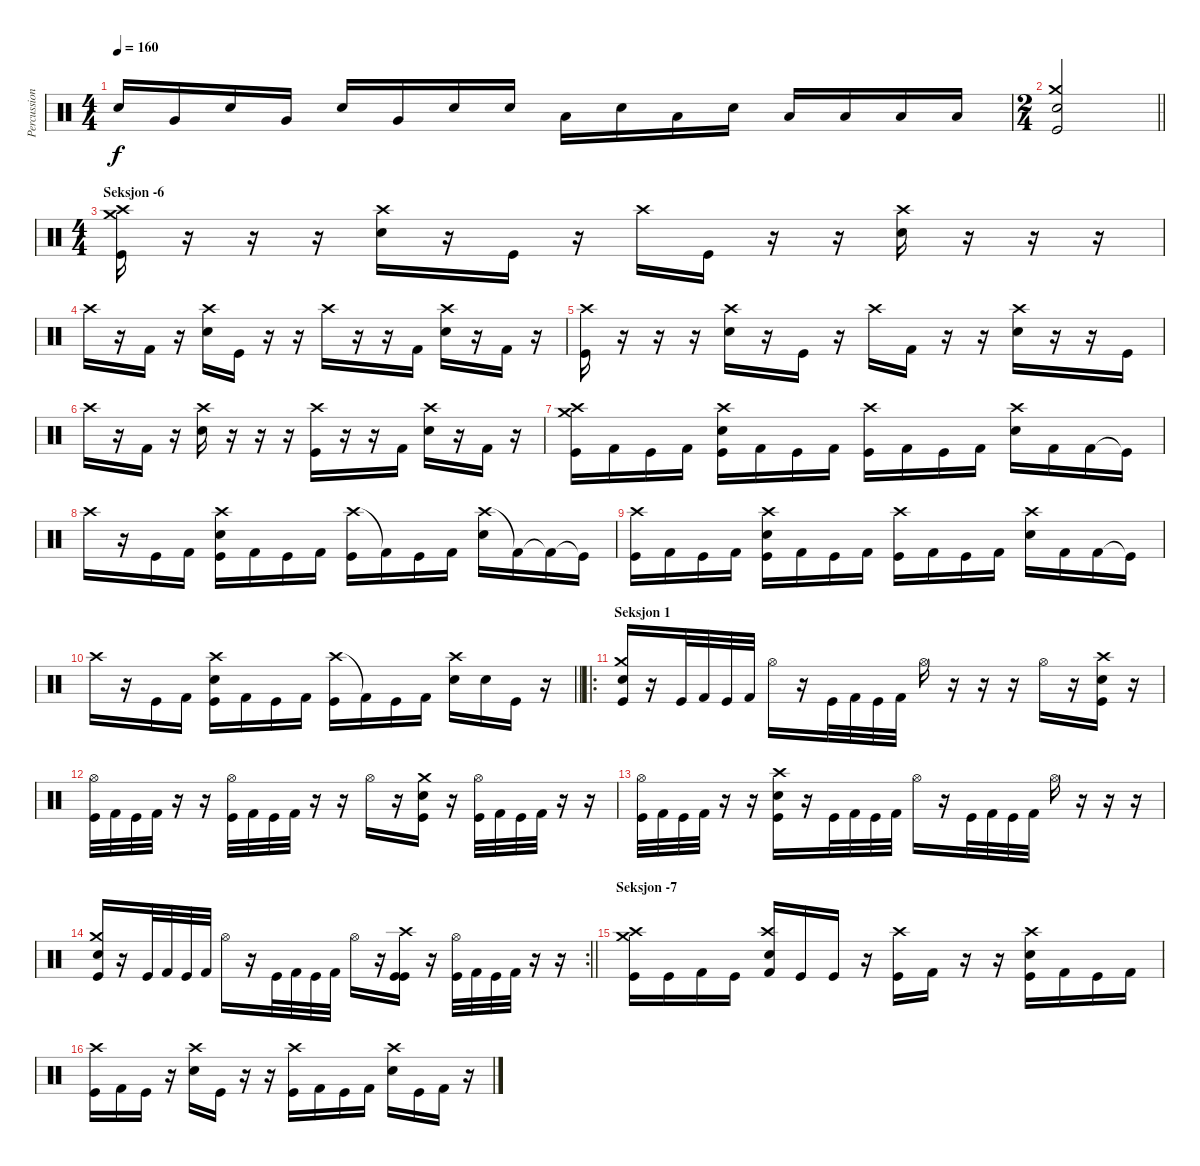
\track ("Percussion" "Percussion") {instrument percussion}
\staff {score}
\articulation defaults
\ts (4 4)
\tempo 160
\clef neutral
\ks c "Snare (hit) 2".16{dy f} "Very Low Tom (hit)".16 "Snare (hit) 2".16 "Very Low Tom (hit)".16 "Snare (hit) 2".16 "Very Low Tom (hit)".16 "Snare (hit) 2".16 "Snare (hit) 2".16 "Low Floor Tom (hit)".16 "Snare (hit) 2".16 "Low Floor Tom (hit)".16 "Snare (hit) 2".16 "Low Floor Tom (hit)".16 "Low Floor Tom (hit)".16 "Low Floor Tom (hit)".16 "Low Floor Tom (hit)".16
|
\ts (2 4)
\barLineRight lightlight
("Crash medium (hit)" "Snare (hit) 2" "Kick (hit)").2 |
\ts (4 4)
\section ("" "Seksjon -6")
("Crash medium (hit)" "Crash high (hit)" "Kick (hit)").16 r.16 r.16 r.16 ("Crash high (hit)" "Snare (hit) 2").16 r.16 "Kick (hit)".16 r.16 "Crash high (hit)".16 "Kick (hit)".16 r.16 r.16 ("Crash high (hit)" "Snare (hit) 2").16 r.16 r.16 r.16 |
"Crash high (hit)".16 r.16 "Kick (hit) 2".16 r.16 ("Crash high (hit)" "Snare (hit) 2").16 "Kick (hit)".16 r.16 r.16 "Crash high (hit)".16 r.16 r.16 "Kick (hit) 2".16 ("Crash high (hit)" "Snare (hit) 2").16 r.16 "Kick (hit) 2".16 r.16 |
("Crash high (hit)" "Kick (hit)").16 r.16 r.16 r.16 ("Crash high (hit)" "Snare (hit) 2").16 r.16 "Kick (hit)".16 r.16 "Crash high (hit)".16 "Kick (hit) 2".16 r.16 r.16 ("Crash high (hit)" "Snare (hit) 2").16 r.16 r.16 "Kick (hit)".16 |
"Crash high (hit)".16 r.16 "Kick (hit) 2".16 r.16 ("Crash high (hit)" "Snare (hit) 2").16 r.16 r.16 r.16 ("Crash high (hit)" "Kick (hit)").16 r.16 r.16 "Kick (hit) 2".16 ("Crash high (hit)" "Snare (hit) 2").16 r.16 "Kick (hit) 2".16 r.16 |
("Crash medium (hit)" "Crash high (hit)" "Kick (hit)").16 "Kick (hit) 2".16 "Kick (hit)".16 "Kick (hit) 2".16 ("Crash high (hit)" "Snare (hit) 2" "Kick (hit)").16 "Kick (hit) 2".16 "Kick (hit)".16 "Kick (hit) 2".16 ("Crash high (hit)" "Kick (hit)").16 "Kick (hit) 2".16 "Kick (hit)".16 "Kick (hit) 2".16 ("Crash high (hit)" "Snare (hit) 2").16 "Kick (hit) 2".16 "Kick (hit) 2".16 "Kick (hit)"{t}.16 |
"Crash high (hit)".16 r.16 "Kick (hit)".16 "Kick (hit) 2".16 ("Crash high (hit)" "Snare (hit) 2" "Kick (hit)").16 "Kick (hit) 2".16 "Kick (hit)".16 "Kick (hit) 2".16 ("Crash high (hit)" "Kick (hit)").16 "Kick (hit) 2"{t}.16 "Kick (hit)".16 "Kick (hit) 2".16 ("Crash high (hit)" "Snare (hit) 2").16 "Kick (hit) 2"{t}.16 "Kick (hit) 2"{t}.16 "Kick (hit)"{t}.16 |
("Crash high (hit)" "Kick (hit)").16 "Kick (hit) 2".16 "Kick (hit)".16 "Kick (hit) 2".16 ("Crash high (hit)" "Snare (hit) 2" "Kick (hit)").16 "Kick (hit) 2".16 "Kick (hit)".16 "Kick (hit) 2".16 ("Crash high (hit)" "Kick (hit)").16 "Kick (hit) 2".16 "Kick (hit)".16 "Kick (hit) 2".16 ("Crash high (hit)" "Snare (hit) 2").16 "Kick (hit) 2".16 "Kick (hit) 2".16 "Kick (hit)"{t}.16 |
\barLineRight lightlight "Crash high (hit)".16
r.16 "Kick (hit)".16 "Kick (hit) 2".16 ("Crash high (hit)" "Snare (hit) 2" "Kick (hit)").16 "Kick (hit) 2".16 "Kick (hit)".16 "Kick (hit) 2".16 ("Crash high (hit)" "Kick (hit)").16 "Kick (hit) 2"{t}.16 "Kick (hit)".16 "Kick (hit) 2".16 ("Crash high (hit)" "Snare (hit) 2").16 "Snare (hit) 2".16 "Kick (hit)".16 r.16 |
\ro
\section ("" "Seksjon 1")
("Crash medium (hit)" "Snare (hit) 2" "Kick (hit)").16 r.16 "Kick (hit)".32 "Kick (hit) 2".32 "Kick (hit)".32 "Kick (hit) 2".32 "Hi-Hat (open)".16 r.16 "Kick (hit)".32 "Kick (hit) 2".32 "Kick (hit)".32 "Kick (hit) 2".32 "Hi-Hat (open)".16 r.16 r.16 r.16 "Hi-Hat (open)".16 r.16 ("Crash high (hit)" "Snare (hit) 2" "Kick (hit)").16 r.16 |
("Hi-Hat (open)" "Kick (hit)").32 "Kick (hit) 2".32 "Kick (hit)".32 "Kick (hit) 2".32 r.16 r.16 ("Hi-Hat (open)" "Kick (hit)").32 "Kick (hit) 2".32 "Kick (hit)".32 "Kick (hit) 2".32 r.16 r.16 "Hi-Hat (open)".16 r.16 ("Crash medium (hit)" "Snare (hit) 2" "Kick (hit)").16 r.16 ("Hi-Hat (open)" "Kick (hit)").32 "Kick (hit) 2".32 "Kick (hit)".32 "Kick (hit) 2".32 r.16 r.16 |
("Hi-Hat (open)" "Kick (hit)").32 "Kick (hit) 2".32 "Kick (hit)".32 "Kick (hit) 2".32 r.16 r.16 ("Crash high (hit)" "Snare (hit) 2" "Kick (hit)").16 r.16 "Kick (hit)".32 "Kick (hit) 2".32 "Kick (hit)".32 "Kick (hit) 2".32 "Hi-Hat (open)".16 r.16 "Kick (hit)".32 "Kick (hit) 2".32 "Kick (hit)".32 "Kick (hit) 2".32 "Hi-Hat (open)".16 r.16 r.16 r.16 |
\rc 2
\barLineRight lightlight
("Crash medium (hit)" "Snare (hit) 2" "Kick (hit)").16 r.16 "Kick (hit)".32 "Kick (hit) 2".32 "Kick (hit)".32 "Kick (hit) 2".32 "Hi-Hat (open)".16 r.16 "Kick (hit)".32 "Kick (hit) 2".32 "Kick (hit)".32 "Kick (hit) 2".32 "Hi-Hat (open)".16 r.16 ("Crash high (hit)" "Kick (hit)" "Kick (hit)").16 r.16 ("Hi-Hat (open)" "Kick (hit)").32 "Kick (hit) 2".32 "Kick (hit)".32 "Kick (hit) 2".32 r.16 r.16 |
\section ("" "Seksjon -7")
("Crash medium (hit)" "Crash high (hit)" "Kick (hit)").16 "Kick (hit)".16 "Kick (hit) 2".16 "Kick (hit)".16 ("Crash high (hit)" "Snare (hit) 2" "Kick (hit) 2").16 "Kick (hit)".16 "Kick (hit)".16 r.16 ("Crash high (hit)" "Kick (hit)").16 "Kick (hit) 2".16 r.16 r.16 ("Crash high (hit)" "Snare (hit) 2" "Kick (hit)").16 "Kick (hit) 2".16 "Kick (hit)".16 "Kick (hit) 2".16 |
("Crash high (hit)" "Kick (hit)").16 "Kick (hit) 2".16 "Kick (hit)".16 r.16 ("Crash high (hit)" "Snare (hit) 2").16 "Kick (hit)".16 r.16 r.16 ("Crash high (hit)" "Kick (hit)").16 "Kick (hit) 2".16 "Kick (hit)".16 "Kick (hit) 2".16 ("Crash high (hit)" "Snare (hit) 2").16 "Kick (hit)".16 "Kick (hit) 2".16 r.16
